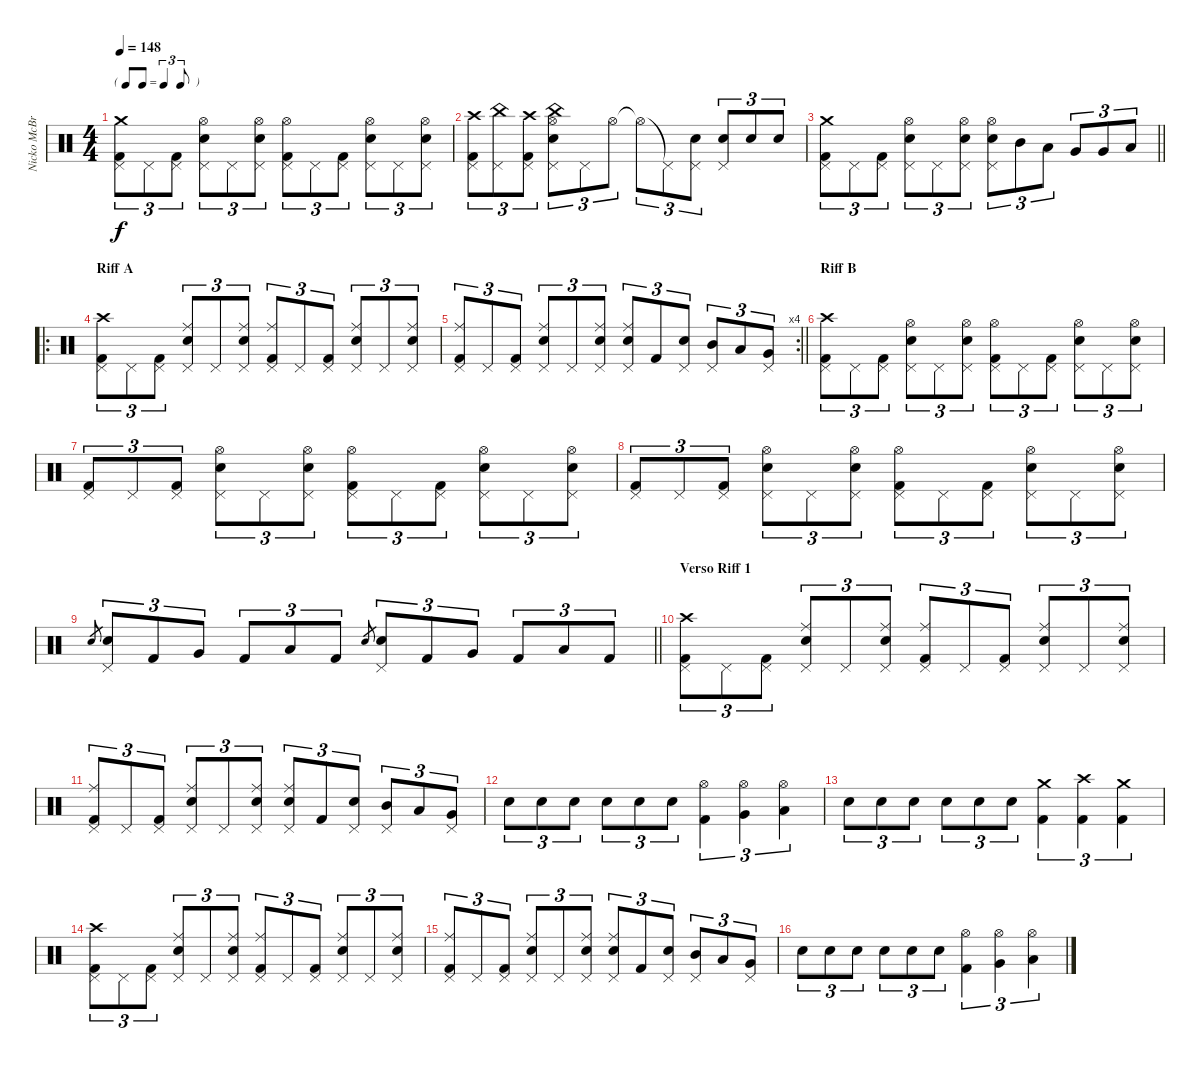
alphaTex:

\track ("Nicko McBrain" "Nicko McBr") {instrument percussion}
\staff {score}
\articulation defaults
\ts (4 4)
\tf triplet8th
\tempo 148
\clef neutral
\ks c
("Kick (hit) 2" "Pedal Hi-Hat (hit)" "Crash medium (hit)").8{tu (3 2) dy f} "Pedal Hi-Hat (hit)".8{tu (3 2)} ("Kick (hit) 2" "Pedal Hi-Hat (hit)").8{tu (3 2)} ("Snare (hit) 2" "Pedal Hi-Hat (hit)" "Hi-Hat (open)").8{tu (3 2)} "Pedal Hi-Hat (hit)".8{tu (3 2)} ("Snare (hit) 2" "Pedal Hi-Hat (hit)" "Hi-Hat (open)").8{tu (3 2)} ("Kick (hit) 2" "Pedal Hi-Hat (hit)" "Hi-Hat (open)").8{tu (3 2)} "Pedal Hi-Hat (hit)".8{tu (3 2)} ("Kick (hit) 2" "Pedal Hi-Hat (hit)").8{tu (3 2)} ("Snare (hit) 2" "Pedal Hi-Hat (hit)" "Hi-Hat (open)").8{tu (3 2)} "Pedal Hi-Hat (hit)".8{tu (3 2)} ("Snare (hit) 2" "Pedal Hi-Hat (hit)" "Hi-Hat (open)").8{tu (3 2)} |
("Kick (hit) 2" "Pedal Hi-Hat (hit)" "Crash high (hit)").8{tu (3 2)} ("Pedal Hi-Hat (hit)" "China (hit)").8{tu (3 2)} ("Kick (hit) 2" "Pedal Hi-Hat (hit)" "Crash high (hit)").8{tu (3 2)} ("Snare (hit) 2" "Pedal Hi-Hat (hit)" "Hi-Hat (open)" "China (hit)").8{tu (3 2)} "Pedal Hi-Hat (hit)".8{tu (3 2)} "Hi-Hat (open)".8{tu (3 2)} "Hi-Hat (open)"{t}.8{tu (3 2)} "Pedal Hi-Hat (hit)"{t}.8{tu (3 2)} ("Snare (hit) 2" "Pedal Hi-Hat (hit)").8{tu (3 2)} ("Snare (hit) 2" "Pedal Hi-Hat (hit)").8{tu (3 2)} "Snare (hit) 2".8{tu (3 2)} "Snare (hit) 2".8{tu (3 2)} |
\barLineRight lightlight
("Kick (hit) 2" "Pedal Hi-Hat (hit)" "Crash medium (hit)").8{tu (3 2)} "Pedal Hi-Hat (hit)".8{tu (3 2)} ("Kick (hit) 2" "Pedal Hi-Hat (hit)").8{tu (3 2)} ("Snare (hit) 2" "Pedal Hi-Hat (hit)" "Hi-Hat (open)").8{tu (3 2)} "Pedal Hi-Hat (hit)".8{tu (3 2)} ("Snare (hit) 2" "Pedal Hi-Hat (hit)" "Hi-Hat (open)").8{tu (3 2)} ("Snare (hit) 2" "Pedal Hi-Hat (hit)" "Hi-Hat (open)").8{tu (3 2)} "Mid Tom (hit)".8{tu (3 2)} "Low Tom (hit)".8{tu (3 2)} "Very Low Tom (hit)".8{tu (3 2)} "Very Low Tom (hit)".8{tu (3 2)} "Low Floor Tom (hit)".8{tu (3 2)} |
\ro
\section ("" "Riff A")
("Kick (hit) 2" "Pedal Hi-Hat (hit)" "Crash high (hit)").8{tu (3 2)} "Pedal Hi-Hat (hit)".8{tu (3 2)} ("Kick (hit) 2" "Pedal Hi-Hat (hit)").8{tu (3 2)} ("Snare (hit) 2" "Pedal Hi-Hat (hit)" "Ride (middle)").8{tu (3 2)} "Pedal Hi-Hat (hit)".8{tu (3 2)} ("Snare (hit) 2" "Pedal Hi-Hat (hit)" "Ride (middle)").8{tu (3 2)} ("Kick (hit) 2" "Pedal Hi-Hat (hit)" "Ride (middle)").8{tu (3 2)} "Pedal Hi-Hat (hit)".8{tu (3 2)} ("Kick (hit) 2" "Pedal Hi-Hat (hit)").8{tu (3 2)} ("Snare (hit) 2" "Pedal Hi-Hat (hit)" "Ride (middle)").8{tu (3 2)} "Pedal Hi-Hat (hit)".8{tu (3 2)} ("Snare (hit) 2" "Pedal Hi-Hat (hit)" "Ride (middle)").8{tu (3 2)} |
\rc 4
\barLineRight lightlight
("Kick (hit) 2" "Pedal Hi-Hat (hit)" "Ride (middle)").8{tu (3 2)} "Pedal Hi-Hat (hit)".8{tu (3 2)} ("Kick (hit) 2" "Pedal Hi-Hat (hit)").8{tu (3 2)} ("Snare (hit) 2" "Pedal Hi-Hat (hit)" "Ride (middle)").8{tu (3 2)} "Pedal Hi-Hat (hit)".8{tu (3 2)} ("Snare (hit) 2" "Pedal Hi-Hat (hit)" "Ride (middle)").8{tu (3 2)} ("Snare (hit) 2" "Pedal Hi-Hat (hit)" "Ride (middle)").8{tu (3 2)} "Kick (hit) 2".8{tu (3 2)} ("Snare (hit) 2" "Pedal Hi-Hat (hit)").8{tu (3 2)} ("Mid Tom (hit)" "Pedal Hi-Hat (hit)").8{tu (3 2)} "Low Tom (hit)".8{tu (3 2)} ("Very Low Tom (hit)" "Pedal Hi-Hat (hit)").8{tu (3 2)} |
\section ("" "Riff B")
("Kick (hit) 2" "Pedal Hi-Hat (hit)" "Crash high (hit)").8{tu (3 2)} "Pedal Hi-Hat (hit)".8{tu (3 2)} ("Kick (hit) 2" "Pedal Hi-Hat (hit)").8{tu (3 2)} ("Snare (hit) 2" "Pedal Hi-Hat (hit)" "Hi-Hat (open)").8{tu (3 2)} "Pedal Hi-Hat (hit)".8{tu (3 2)} ("Snare (hit) 2" "Pedal Hi-Hat (hit)" "Hi-Hat (open)").8{tu (3 2)} ("Kick (hit) 2" "Pedal Hi-Hat (hit)" "Hi-Hat (open)").8{tu (3 2)} "Pedal Hi-Hat (hit)".8{tu (3 2)} ("Kick (hit) 2" "Pedal Hi-Hat (hit)").8{tu (3 2)} ("Snare (hit) 2" "Pedal Hi-Hat (hit)" "Hi-Hat (open)").8{tu (3 2)} "Pedal Hi-Hat (hit)".8{tu (3 2)} ("Snare (hit) 2" "Pedal Hi-Hat (hit)" "Hi-Hat (open)").8{tu (3 2)} |
("Kick (hit) 2" "Pedal Hi-Hat (hit)").8{tu (3 2)} "Pedal Hi-Hat (hit)".8{tu (3 2)} ("Kick (hit) 2" "Pedal Hi-Hat (hit)").8{tu (3 2)} ("Snare (hit) 2" "Pedal Hi-Hat (hit)" "Hi-Hat (open)").8{tu (3 2)} "Pedal Hi-Hat (hit)".8{tu (3 2)} ("Snare (hit) 2" "Pedal Hi-Hat (hit)" "Hi-Hat (open)").8{tu (3 2)} ("Kick (hit) 2" "Pedal Hi-Hat (hit)" "Hi-Hat (open)").8{tu (3 2)} "Pedal Hi-Hat (hit)".8{tu (3 2)} ("Kick (hit) 2" "Pedal Hi-Hat (hit)").8{tu (3 2)} ("Snare (hit) 2" "Pedal Hi-Hat (hit)" "Hi-Hat (open)").8{tu (3 2)} "Pedal Hi-Hat (hit)".8{tu (3 2)} ("Snare (hit) 2" "Pedal Hi-Hat (hit)" "Hi-Hat (open)").8{tu (3 2)} |
("Kick (hit) 2" "Pedal Hi-Hat (hit)").8{tu (3 2)} "Pedal Hi-Hat (hit)".8{tu (3 2)} ("Kick (hit) 2" "Pedal Hi-Hat (hit)").8{tu (3 2)} ("Snare (hit) 2" "Pedal Hi-Hat (hit)" "Hi-Hat (open)").8{tu (3 2)} "Pedal Hi-Hat (hit)".8{tu (3 2)} ("Snare (hit) 2" "Pedal Hi-Hat (hit)" "Hi-Hat (open)").8{tu (3 2)} ("Kick (hit) 2" "Pedal Hi-Hat (hit)" "Hi-Hat (open)").8{tu (3 2)} "Pedal Hi-Hat (hit)".8{tu (3 2)} ("Kick (hit) 2" "Pedal Hi-Hat (hit)").8{tu (3 2)} ("Snare (hit) 2" "Pedal Hi-Hat (hit)" "Hi-Hat (open)").8{tu (3 2)} "Pedal Hi-Hat (hit)".8{tu (3 2)} ("Snare (hit) 2" "Pedal Hi-Hat (hit)" "Hi-Hat (open)").8{tu (3 2)} |
\barLineRight lightlight "Snare (hit) 2".8{gr}
("Snare (hit) 2" "Pedal Hi-Hat (hit)").8{tu (3 2)} "Kick (hit) 2".8{tu (3 2)} "Very Low Tom (hit)".8{tu (3 2)} "Kick (hit) 2".8{tu (3 2)} "Low Floor Tom (hit)".8{tu (3 2)} "Kick (hit) 2".8{tu (3 2)} "Snare (hit) 2".8{gr} ("Snare (hit) 2" "Pedal Hi-Hat (hit)").8{tu (3 2)} "Kick (hit) 2".8{tu (3 2)} "Very Low Tom (hit)".8{tu (3 2)} "Kick (hit) 2".8{tu (3 2)} "Low Floor Tom (hit)".8{tu (3 2)} "Kick (hit) 2".8{tu (3 2)} |
\section ("" "Verso Riff 1")
("Kick (hit) 2" "Pedal Hi-Hat (hit)" "Crash high (hit)").8{tu (3 2)} "Pedal Hi-Hat (hit)".8{tu (3 2)} ("Kick (hit) 2" "Pedal Hi-Hat (hit)").8{tu (3 2)} ("Snare (hit) 2" "Pedal Hi-Hat (hit)" "Ride (middle)").8{tu (3 2)} "Pedal Hi-Hat (hit)".8{tu (3 2)} ("Snare (hit) 2" "Pedal Hi-Hat (hit)" "Ride (middle)").8{tu (3 2)} ("Kick (hit) 2" "Pedal Hi-Hat (hit)" "Ride (middle)").8{tu (3 2)} "Pedal Hi-Hat (hit)".8{tu (3 2)} ("Kick (hit) 2" "Pedal Hi-Hat (hit)").8{tu (3 2)} ("Snare (hit) 2" "Pedal Hi-Hat (hit)" "Ride (middle)").8{tu (3 2)} "Pedal Hi-Hat (hit)".8{tu (3 2)} ("Snare (hit) 2" "Pedal Hi-Hat (hit)" "Ride (middle)").8{tu (3 2)} |
("Kick (hit) 2" "Pedal Hi-Hat (hit)" "Ride (middle)").8{tu (3 2)} "Pedal Hi-Hat (hit)".8{tu (3 2)} ("Kick (hit) 2" "Pedal Hi-Hat (hit)").8{tu (3 2)} ("Snare (hit) 2" "Pedal Hi-Hat (hit)" "Ride (middle)").8{tu (3 2)} "Pedal Hi-Hat (hit)".8{tu (3 2)} ("Snare (hit) 2" "Pedal Hi-Hat (hit)" "Ride (middle)").8{tu (3 2)} ("Snare (hit) 2" "Pedal Hi-Hat (hit)" "Ride (middle)").8{tu (3 2)} "Kick (hit) 2".8{tu (3 2)} ("Snare (hit) 2" "Pedal Hi-Hat (hit)").8{tu (3 2)} ("Mid Tom (hit)" "Pedal Hi-Hat (hit)").8{tu (3 2)} "Low Tom (hit)".8{tu (3 2)} ("Very Low Tom (hit)" "Pedal Hi-Hat (hit)").8{tu (3 2)} |
"Snare (hit) 2".8{tu (3 2)} "Snare (hit) 2".8{tu (3 2)} "Snare (hit) 2".8{tu (3 2)} "Snare (hit) 2".8{tu (3 2)} "Snare (hit) 2".8{tu (3 2)} "Snare (hit) 2".8{tu (3 2)} ("Kick (hit) 2" "Hi-Hat (open)").4{tu (3 2)} ("Very Low Tom (hit)" "Hi-Hat (open)").4{tu (3 2)} ("Low Floor Tom (hit)" "Hi-Hat (open)").4{tu (3 2)} |
"Snare (hit) 2".8{tu (3 2)} "Snare (hit) 2".8{tu (3 2)} "Snare (hit) 2".8{tu (3 2)} "Snare (hit) 2".8{tu (3 2)} "Snare (hit) 2".8{tu (3 2)} "Snare (hit) 2".8{tu (3 2)} ("Kick (hit) 2" "Crash medium (hit)").4{tu (3 2)} ("Kick (hit) 2" "Crash high (hit)").4{tu (3 2)} ("Kick (hit) 2" "Crash medium (hit)").4{tu (3 2)} |
("Kick (hit) 2" "Pedal Hi-Hat (hit)" "Crash high (hit)").8{tu (3 2)} "Pedal Hi-Hat (hit)".8{tu (3 2)} ("Kick (hit) 2" "Pedal Hi-Hat (hit)").8{tu (3 2)} ("Snare (hit) 2" "Pedal Hi-Hat (hit)" "Ride (middle)").8{tu (3 2)} "Pedal Hi-Hat (hit)".8{tu (3 2)} ("Snare (hit) 2" "Pedal Hi-Hat (hit)" "Ride (middle)").8{tu (3 2)} ("Kick (hit) 2" "Pedal Hi-Hat (hit)" "Ride (middle)").8{tu (3 2)} "Pedal Hi-Hat (hit)".8{tu (3 2)} ("Kick (hit) 2" "Pedal Hi-Hat (hit)").8{tu (3 2)} ("Snare (hit) 2" "Pedal Hi-Hat (hit)" "Ride (middle)").8{tu (3 2)} "Pedal Hi-Hat (hit)".8{tu (3 2)} ("Snare (hit) 2" "Pedal Hi-Hat (hit)" "Ride (middle)").8{tu (3 2)} |
("Kick (hit) 2" "Pedal Hi-Hat (hit)" "Ride (middle)").8{tu (3 2)} "Pedal Hi-Hat (hit)".8{tu (3 2)} ("Kick (hit) 2" "Pedal Hi-Hat (hit)").8{tu (3 2)} ("Snare (hit) 2" "Pedal Hi-Hat (hit)" "Ride (middle)").8{tu (3 2)} "Pedal Hi-Hat (hit)".8{tu (3 2)} ("Snare (hit) 2" "Pedal Hi-Hat (hit)" "Ride (middle)").8{tu (3 2)} ("Snare (hit) 2" "Pedal Hi-Hat (hit)" "Ride (middle)").8{tu (3 2)} "Kick (hit) 2".8{tu (3 2)} ("Snare (hit) 2" "Pedal Hi-Hat (hit)").8{tu (3 2)} ("Mid Tom (hit)" "Pedal Hi-Hat (hit)").8{tu (3 2)} "Low Tom (hit)".8{tu (3 2)} ("Very Low Tom (hit)" "Pedal Hi-Hat (hit)").8{tu (3 2)} |
"Snare (hit) 2".8{tu (3 2)} "Snare (hit) 2".8{tu (3 2)} "Snare (hit) 2".8{tu (3 2)} "Snare (hit) 2".8{tu (3 2)} "Snare (hit) 2".8{tu (3 2)} "Snare (hit) 2".8{tu (3 2)} ("Kick (hit) 2" "Hi-Hat (open)").4{tu (3 2)} ("Very Low Tom (hit)" "Hi-Hat (open)").4{tu (3 2)} ("Low Floor Tom (hit)" "Hi-Hat (open)").4{tu (3 2)}
